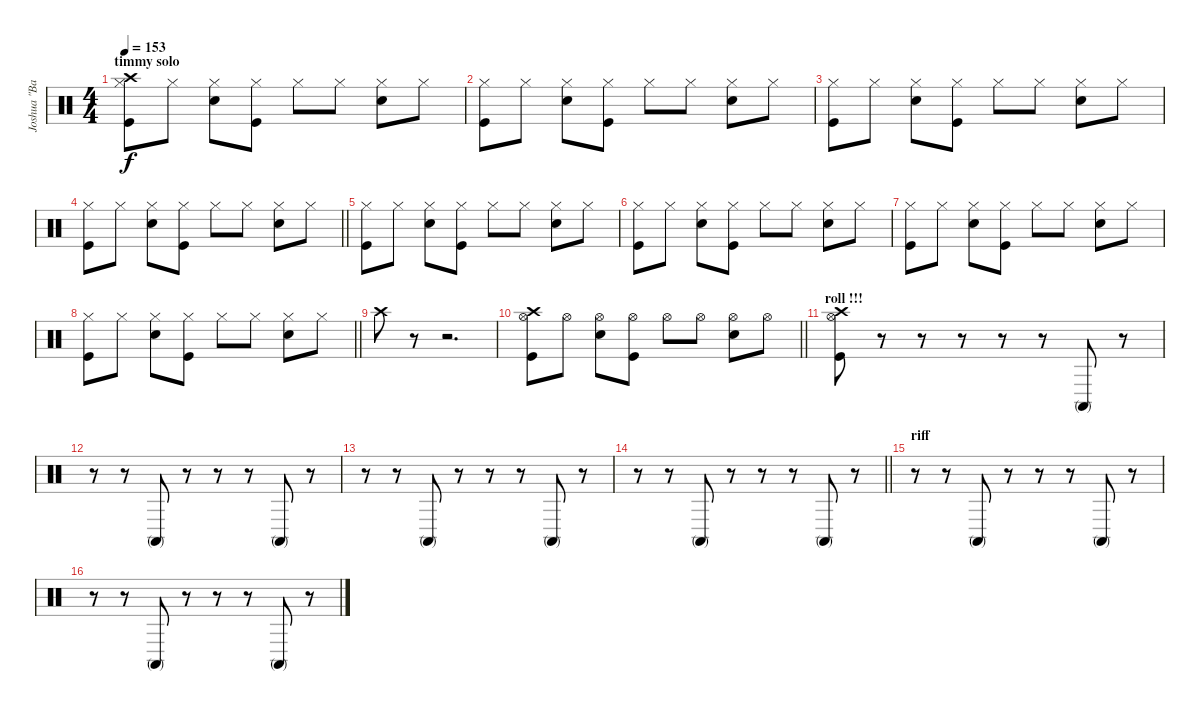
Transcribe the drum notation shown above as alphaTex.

\track ("Joshua \"Baby Duck\" Homme" "Joshua \"Ba") {instrument percussion}
\staff {score}
\articulation defaults
\ts (4 4)
\section ("" "timmy solo")
\tempo 153
\clef neutral
\ks c
("Kick (hit)" "Hi-Hat (closed)" "Crash high (hit)").8{dy f} "Hi-Hat (closed)".8 ("Electric Snare (hit)" "Hi-Hat (closed)").8 ("Kick (hit)" "Hi-Hat (closed)").8 "Hi-Hat (closed)".8 "Hi-Hat (closed)".8 ("Electric Snare (hit)" "Hi-Hat (closed)").8 "Hi-Hat (closed)".8 |
("Kick (hit)" "Hi-Hat (closed)").8 "Hi-Hat (closed)".8 ("Electric Snare (hit)" "Hi-Hat (closed)").8 ("Kick (hit)" "Hi-Hat (closed)").8 "Hi-Hat (closed)".8 "Hi-Hat (closed)".8 ("Electric Snare (hit)" "Hi-Hat (closed)").8 "Hi-Hat (closed)".8 |
("Kick (hit)" "Hi-Hat (closed)").8 "Hi-Hat (closed)".8 ("Electric Snare (hit)" "Hi-Hat (closed)").8 ("Kick (hit)" "Hi-Hat (closed)").8 "Hi-Hat (closed)".8 "Hi-Hat (closed)".8 ("Electric Snare (hit)" "Hi-Hat (closed)").8 "Hi-Hat (closed)".8 |
\barLineRight lightlight
("Kick (hit)" "Hi-Hat (closed)").8 "Hi-Hat (closed)".8 ("Electric Snare (hit)" "Hi-Hat (closed)").8 ("Kick (hit)" "Hi-Hat (closed)").8 "Hi-Hat (closed)".8 "Hi-Hat (closed)".8 ("Electric Snare (hit)" "Hi-Hat (closed)").8 "Hi-Hat (closed)".8 |
\section ("" "")
("Kick (hit)" "Hi-Hat (closed)").8 "Hi-Hat (closed)".8 ("Electric Snare (hit)" "Hi-Hat (closed)").8 ("Kick (hit)" "Hi-Hat (closed)").8 "Hi-Hat (closed)".8 "Hi-Hat (closed)".8 ("Electric Snare (hit)" "Hi-Hat (closed)").8 "Hi-Hat (closed)".8 |
("Kick (hit)" "Hi-Hat (closed)").8 "Hi-Hat (closed)".8 ("Electric Snare (hit)" "Hi-Hat (closed)").8 ("Kick (hit)" "Hi-Hat (closed)").8 "Hi-Hat (closed)".8 "Hi-Hat (closed)".8 ("Electric Snare (hit)" "Hi-Hat (closed)").8 "Hi-Hat (closed)".8 |
("Kick (hit)" "Hi-Hat (closed)").8 "Hi-Hat (closed)".8 ("Electric Snare (hit)" "Hi-Hat (closed)").8 ("Kick (hit)" "Hi-Hat (closed)").8 "Hi-Hat (closed)".8 "Hi-Hat (closed)".8 ("Electric Snare (hit)" "Hi-Hat (closed)").8 "Hi-Hat (closed)".8 |
\barLineRight lightlight
("Kick (hit)" "Hi-Hat (closed)").8 "Hi-Hat (closed)".8 ("Electric Snare (hit)" "Hi-Hat (closed)").8 ("Kick (hit)" "Hi-Hat (closed)").8 "Hi-Hat (closed)".8 "Hi-Hat (closed)".8 ("Electric Snare (hit)" "Hi-Hat (closed)").8 "Hi-Hat (closed)".8 |
\section ("" "")
"Crash high (hit)".8 r.8 r.2{d} |
\barLineRight lightlight
("Kick (hit)" "Hi-Hat (open)" "Crash high (hit)").8 "Hi-Hat (open)".8 ("Electric Snare (hit)" "Hi-Hat (open)").8 ("Kick (hit)" "Hi-Hat (open)").8 "Hi-Hat (open)".8 "Hi-Hat (open)".8 ("Electric Snare (hit)" "Hi-Hat (open)").8 "Hi-Hat (open)".8 |
\section ("" "roll !!!")
("Kick (hit)" "Hi-Hat (open)" "Crash high (hit)").8 r.8 r.8 r.8 r.8 r.8 "Conga high (mute)".8 r.8 |
r.8 r.8 "Conga high (mute)".8 r.8 r.8 r.8 "Conga high (mute)".8 r.8 |
r.8 r.8 "Conga high (mute)".8 r.8 r.8 r.8 "Conga high (mute)".8 r.8 |
\barLineRight lightlight
r.8 r.8 "Conga high (mute)".8 r.8 r.8 r.8 "Conga high (mute)".8 r.8 |
\section ("" "riff")
r.8 r.8 "Conga high (mute)".8 r.8 r.8 r.8 "Conga high (mute)".8 r.8 |
r.8 r.8 "Conga high (mute)".8 r.8 r.8 r.8 "Conga high (mute)".8 r.8
